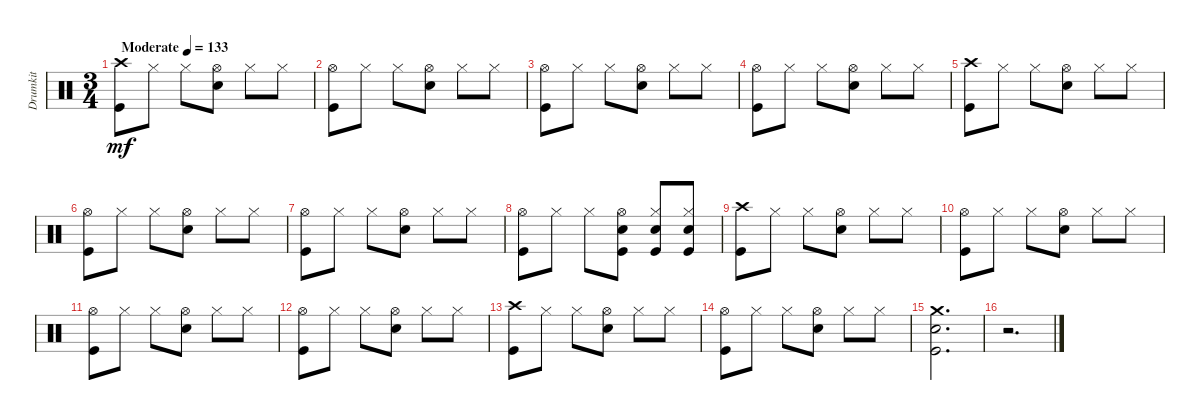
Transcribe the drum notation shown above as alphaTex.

\track ("Drumkit" "Drumkit") {instrument percussion}
\staff {score}
\articulation defaults
\ts (3 4)
\tempo (133 "Moderate")
\clef neutral
\ks c
("Crash high (hit)" "Kick (hit)").8{dy mf} "Hi-Hat (closed)".8 "Hi-Hat (closed)".8 ("Hi-Hat (open)" "Snare (hit) 2").8 "Hi-Hat (closed)".8 "Hi-Hat (closed)".8 |
("Kick (hit)" "Hi-Hat (open)").8 "Hi-Hat (closed)".8 "Hi-Hat (closed)".8 ("Hi-Hat (open)" "Snare (hit) 2").8 "Hi-Hat (closed)".8 "Hi-Hat (closed)".8 |
("Kick (hit)" "Hi-Hat (open)").8 "Hi-Hat (closed)".8 "Hi-Hat (closed)".8 ("Hi-Hat (open)" "Snare (hit) 2").8 "Hi-Hat (closed)".8 "Hi-Hat (closed)".8 |
("Kick (hit)" "Hi-Hat (open)").8 "Hi-Hat (closed)".8 "Hi-Hat (closed)".8 ("Hi-Hat (open)" "Snare (hit) 2").8 "Hi-Hat (closed)".8 "Hi-Hat (closed)".8 |
("Crash high (hit)" "Kick (hit)").8 "Hi-Hat (closed)".8 "Hi-Hat (closed)".8 ("Hi-Hat (open)" "Snare (hit) 2").8 "Hi-Hat (closed)".8 "Hi-Hat (closed)".8 |
("Kick (hit)" "Hi-Hat (open)").8 "Hi-Hat (closed)".8 "Hi-Hat (closed)".8 ("Hi-Hat (open)" "Snare (hit) 2").8 "Hi-Hat (closed)".8 "Hi-Hat (closed)".8 |
("Kick (hit)" "Hi-Hat (open)").8 "Hi-Hat (closed)".8 "Hi-Hat (closed)".8 ("Hi-Hat (open)" "Snare (hit) 2").8 "Hi-Hat (closed)".8 "Hi-Hat (closed)".8 |
("Kick (hit)" "Hi-Hat (open)").8 "Hi-Hat (closed)".8 "Hi-Hat (closed)".8 ("Hi-Hat (open)" "Snare (hit) 2" "Kick (hit)").8 ("Hi-Hat (closed)" "Kick (hit)" "Snare (hit) 2").8 ("Hi-Hat (closed)" "Kick (hit)" "Snare (hit) 2").8 |
("Crash high (hit)" "Kick (hit)").8 "Hi-Hat (closed)".8 "Hi-Hat (closed)".8 ("Hi-Hat (open)" "Snare (hit) 2").8 "Hi-Hat (closed)".8 "Hi-Hat (closed)".8 |
("Kick (hit)" "Hi-Hat (open)").8 "Hi-Hat (closed)".8 "Hi-Hat (closed)".8 ("Hi-Hat (open)" "Snare (hit) 2").8 "Hi-Hat (closed)".8 "Hi-Hat (closed)".8 |
("Kick (hit)" "Hi-Hat (open)").8 "Hi-Hat (closed)".8 "Hi-Hat (closed)".8 ("Hi-Hat (open)" "Snare (hit) 2").8 "Hi-Hat (closed)".8 "Hi-Hat (closed)".8 |
("Kick (hit)" "Hi-Hat (open)").8 "Hi-Hat (closed)".8 "Hi-Hat (closed)".8 ("Hi-Hat (open)" "Snare (hit) 2").8 "Hi-Hat (closed)".8 "Hi-Hat (closed)".8 |
("Crash high (hit)" "Kick (hit)").8 "Hi-Hat (closed)".8 "Hi-Hat (closed)".8 ("Hi-Hat (open)" "Snare (hit) 2").8 "Hi-Hat (closed)".8 "Hi-Hat (closed)".8 |
("Kick (hit)" "Hi-Hat (open)").8 "Hi-Hat (closed)".8 "Hi-Hat (closed)".8 ("Hi-Hat (open)" "Snare (hit) 2").8 "Hi-Hat (closed)".8 "Hi-Hat (closed)".8 |
("Crash medium (hit)" "Kick (hit)" "Snare (hit) 2").2{d} |
r.2{d}
